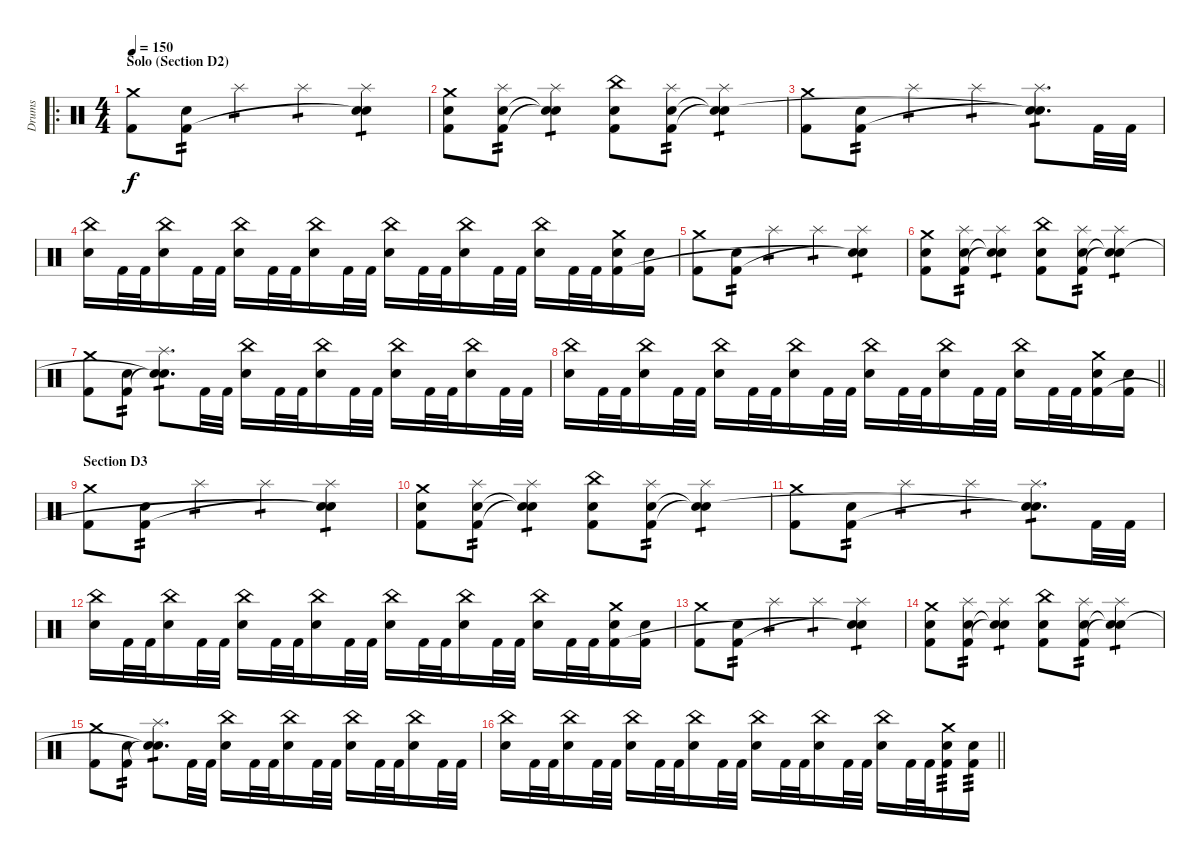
\track ("Drums" "Drums") {instrument percussion}
\staff {score}
\articulation defaults
\ro
\ts (4 4)
\section ("" "Solo (Section D2)")
\tempo 150
\clef neutral
\ks c
("Crash medium (hit)" "Kick (hit) 2").8{dy f} ("Snare (hit) 2" "Kick (hit) 2").8{tp 2} "Splash (hit)".4{tp 1} "Splash (hit)".4{tp 1} ("Splash (hit)" "Snare (hit)"{t} "Snare (hit)"{t}).4{tp 1} |
("Crash medium (hit)" "Snare (hit) 2" "Kick (hit) 2").8 ("Splash (hit)" "Snare (hit) 2" "Kick (hit) 2").8{tp 2} ("Splash (hit)" "Snare (hit)"{t} "Snare (hit)"{t}).4{tp 1} ("China (hit)" "Snare (hit) 2" "Kick (hit) 2").8 ("Splash (hit)" "Snare (hit) 2" "Kick (hit) 2").8{tp 2} ("Splash (hit)" "Snare (hit)"{t} "Snare (hit)"{t}).4{tp 1} |
("Crash medium (hit)" "Kick (hit) 2").8 ("Snare (hit) 2" "Kick (hit) 2").8{tp 2} "Splash (hit)".4{tp 1} "Splash (hit)".4{tp 1} ("Splash (hit)" "Snare (hit)"{t} "Snare (hit)"{t}).8{d tp 1} "Kick (hit) 2".32 "Kick (hit) 2".32 |
("China (hit)" "Snare (hit) 2").16 "Kick (hit) 2".32 "Kick (hit) 2".32 ("China (hit)" "Snare (hit) 2").16 "Kick (hit) 2".32 "Kick (hit) 2".32 ("China (hit)" "Snare (hit) 2").16 "Kick (hit) 2".32 "Kick (hit) 2".32 ("China (hit)" "Snare (hit) 2").16 "Kick (hit) 2".32 "Kick (hit) 2".32 ("China (hit)" "Snare (hit) 2").16 "Kick (hit) 2".32 "Kick (hit) 2".32 ("China (hit)" "Snare (hit) 2").16 "Kick (hit) 2".32 "Kick (hit) 2".32 ("China (hit)" "Snare (hit) 2").16 "Kick (hit) 2".32 "Kick (hit) 2".32 ("Crash medium (hit)" "Electric Snare (hit)" "Kick (hit) 2").16 ("Electric Snare (hit)" "Kick (hit) 2").16 |
("Crash medium (hit)" "Kick (hit) 2").8 ("Snare (hit) 2" "Kick (hit) 2").8{tp 2} "Splash (hit)".4{tp 1} "Splash (hit)".4{tp 1} ("Splash (hit)" "Snare (hit)"{t} "Snare (hit)"{t}).4{tp 1} |
("Crash medium (hit)" "Snare (hit) 2" "Kick (hit) 2").8 ("Splash (hit)" "Snare (hit) 2" "Kick (hit) 2").8{tp 2} ("Splash (hit)" "Snare (hit)"{t} "Snare (hit)"{t}).4{tp 1} ("China (hit)" "Snare (hit) 2" "Kick (hit) 2").8 ("Splash (hit)" "Snare (hit) 2" "Kick (hit) 2").8{tp 2} ("Splash (hit)" "Snare (hit)"{t} "Snare (hit)"{t}).4{tp 1} |
("Crash medium (hit)" "Kick (hit) 2").8 ("Snare (hit) 2" "Kick (hit) 2").8{tp 2} ("Splash (hit)" "Snare (hit)"{t} "Snare (hit)"{t}).8{d tp 1} "Kick (hit) 2".32 "Kick (hit) 2".32 ("China (hit)" "Snare (hit) 2").16 "Kick (hit) 2".32 "Kick (hit) 2".32 ("China (hit)" "Snare (hit) 2").16 "Kick (hit) 2".32 "Kick (hit) 2".32 ("China (hit)" "Snare (hit) 2").16 "Kick (hit) 2".32 "Kick (hit) 2".32 ("China (hit)" "Snare (hit) 2").16 "Kick (hit) 2".32 "Kick (hit) 2".32 |
\barLineRight lightlight
("China (hit)" "Snare (hit) 2").16 "Kick (hit) 2".32 "Kick (hit) 2".32 ("China (hit)" "Snare (hit) 2").16 "Kick (hit) 2".32 "Kick (hit) 2".32 ("China (hit)" "Snare (hit) 2").16 "Kick (hit) 2".32 "Kick (hit) 2".32 ("China (hit)" "Snare (hit) 2").16 "Kick (hit) 2".32 "Kick (hit) 2".32 ("China (hit)" "Snare (hit) 2").16 "Kick (hit) 2".32 "Kick (hit) 2".32 ("China (hit)" "Snare (hit) 2").16 "Kick (hit) 2".32 "Kick (hit) 2".32 ("China (hit)" "Snare (hit) 2").16 "Kick (hit) 2".32 "Kick (hit) 2".32 ("Crash medium (hit)" "Electric Snare (hit)" "Kick (hit) 2").16 ("Electric Snare (hit)" "Kick (hit) 2").16 |
\section ("" "Section D3")
("Crash medium (hit)" "Kick (hit) 2").8 ("Snare (hit) 2" "Kick (hit) 2").8{tp 2} "Splash (hit)".4{tp 1} "Splash (hit)".4{tp 1} ("Splash (hit)" "Snare (hit)"{t} "Snare (hit)"{t}).4{tp 1} |
("Crash medium (hit)" "Snare (hit) 2" "Kick (hit) 2").8 ("Splash (hit)" "Snare (hit) 2" "Kick (hit) 2").8{tp 2} ("Splash (hit)" "Snare (hit)"{t} "Snare (hit)"{t}).4{tp 1} ("China (hit)" "Snare (hit) 2" "Kick (hit) 2").8 ("Splash (hit)" "Snare (hit) 2" "Kick (hit) 2").8{tp 2} ("Splash (hit)" "Snare (hit)"{t} "Snare (hit)"{t}).4{tp 1} |
("Crash medium (hit)" "Kick (hit) 2").8 ("Snare (hit) 2" "Kick (hit) 2").8{tp 2} "Splash (hit)".4{tp 1} "Splash (hit)".4{tp 1} ("Splash (hit)" "Snare (hit)"{t} "Snare (hit)"{t}).8{d tp 1} "Kick (hit) 2".32 "Kick (hit) 2".32 |
("China (hit)" "Snare (hit) 2").16 "Kick (hit) 2".32 "Kick (hit) 2".32 ("China (hit)" "Snare (hit) 2").16 "Kick (hit) 2".32 "Kick (hit) 2".32 ("China (hit)" "Snare (hit) 2").16 "Kick (hit) 2".32 "Kick (hit) 2".32 ("China (hit)" "Snare (hit) 2").16 "Kick (hit) 2".32 "Kick (hit) 2".32 ("China (hit)" "Snare (hit) 2").16 "Kick (hit) 2".32 "Kick (hit) 2".32 ("China (hit)" "Snare (hit) 2").16 "Kick (hit) 2".32 "Kick (hit) 2".32 ("China (hit)" "Snare (hit) 2").16 "Kick (hit) 2".32 "Kick (hit) 2".32 ("Crash medium (hit)" "Electric Snare (hit)" "Kick (hit) 2").16 ("Electric Snare (hit)" "Kick (hit) 2").16 |
("Crash medium (hit)" "Kick (hit) 2").8 ("Snare (hit) 2" "Kick (hit) 2").8{tp 2} "Splash (hit)".4{tp 1} "Splash (hit)".4{tp 1} ("Splash (hit)" "Snare (hit)"{t} "Snare (hit)"{t}).4{tp 1} |
("Crash medium (hit)" "Snare (hit) 2" "Kick (hit) 2").8 ("Splash (hit)" "Snare (hit) 2" "Kick (hit) 2").8{tp 2} ("Splash (hit)" "Snare (hit)"{t} "Snare (hit)"{t}).4{tp 1} ("China (hit)" "Snare (hit) 2" "Kick (hit) 2").8 ("Splash (hit)" "Snare (hit) 2" "Kick (hit) 2").8{tp 2} ("Splash (hit)" "Snare (hit)"{t} "Snare (hit)"{t}).4{tp 1} |
("Crash medium (hit)" "Kick (hit) 2").8 ("Snare (hit) 2" "Kick (hit) 2").8{tp 2} ("Splash (hit)" "Snare (hit)"{t} "Snare (hit)"{t}).8{d tp 1} "Kick (hit) 2".32 "Kick (hit) 2".32 ("China (hit)" "Snare (hit) 2").16 "Kick (hit) 2".32 "Kick (hit) 2".32 ("China (hit)" "Snare (hit) 2").16 "Kick (hit) 2".32 "Kick (hit) 2".32 ("China (hit)" "Snare (hit) 2").16 "Kick (hit) 2".32 "Kick (hit) 2".32 ("China (hit)" "Snare (hit) 2").16 "Kick (hit) 2".32 "Kick (hit) 2".32 |
\barLineRight lightlight
("China (hit)" "Snare (hit) 2").16 "Kick (hit) 2".32 "Kick (hit) 2".32 ("China (hit)" "Snare (hit) 2").16 "Kick (hit) 2".32 "Kick (hit) 2".32 ("China (hit)" "Snare (hit) 2").16 "Kick (hit) 2".32 "Kick (hit) 2".32 ("China (hit)" "Snare (hit) 2").16 "Kick (hit) 2".32 "Kick (hit) 2".32 ("China (hit)" "Snare (hit) 2").16 "Kick (hit) 2".32 "Kick (hit) 2".32 ("China (hit)" "Snare (hit) 2").16 "Kick (hit) 2".32 "Kick (hit) 2".32 ("China (hit)" "Snare (hit) 2").16 "Kick (hit) 2".32 "Kick (hit) 2".32 ("Crash medium (hit)" "Electric Snare (hit)" "Kick (hit) 2").16{tp 3} ("Electric Snare (hit)" "Kick (hit) 2").16{tp 3}
